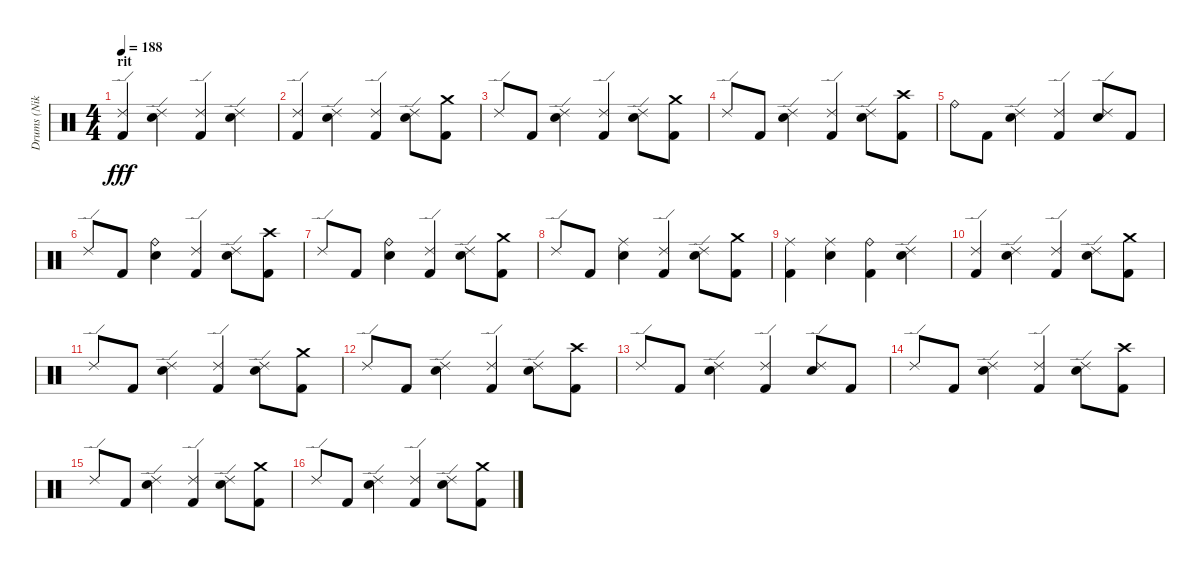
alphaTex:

\track ("Drums (Niko)" "Drums (Nik") {instrument percussion}
\staff {score}
\articulation defaults
\ts (4 4)
\section ("" "rit")
\tempo 188
\clef neutral
\ks c
("Ride (edge) 2" "Kick (hit) 2").4{dy fff} ("Ride (edge) 2" "Electric Snare (hit)").4 ("Ride (edge) 2" "Kick (hit) 2").4 ("Ride (edge) 2" "Electric Snare (hit)").4 |
("Ride (edge) 2" "Kick (hit) 2").4 ("Ride (edge) 2" "Electric Snare (hit)").4 ("Ride (edge) 2" "Kick (hit) 2").4 ("Ride (edge) 2" "Electric Snare (hit)").8 ("Crash medium (hit)" "Kick (hit) 2").8 |
"Ride (edge) 2".8 "Kick (hit) 2".8 ("Ride (edge) 2" "Electric Snare (hit)").4 ("Ride (edge) 2" "Kick (hit) 2").4 ("Ride (edge) 2" "Electric Snare (hit)").8 ("Crash medium (hit)" "Kick (hit) 2").8 |
"Ride (edge) 2".8 "Kick (hit) 2".8 ("Ride (edge) 2" "Electric Snare (hit)").4 ("Ride (edge) 2" "Kick (hit) 2").4 ("Ride (edge) 2" "Electric Snare (hit)").8 ("Crash high (hit)" "Kick (hit) 2").8 |
"Ride (bell)".8 "Kick (hit) 2".8 ("Ride (edge) 2" "Electric Snare (hit)").4 ("Ride (edge) 2" "Kick (hit) 2").4 ("Ride (edge) 2" "Electric Snare (hit)").8 "Kick (hit) 2".8 |
"Ride (edge) 2".8 "Kick (hit) 2".8 ("Ride (bell)" "Electric Snare (hit)").4 ("Ride (edge) 2" "Kick (hit) 2").4 ("Ride (edge) 2" "Electric Snare (hit)").8 ("Crash high (hit)" "Kick (hit) 2").8 |
"Ride (edge) 2".8 "Kick (hit) 2".8 ("Ride (bell)" "Electric Snare (hit)").4 ("Ride (edge) 2" "Kick (hit) 2").4 ("Ride (edge) 2" "Electric Snare (hit)").8 ("Crash medium (hit)" "Kick (hit) 2").8 |
"Ride (edge) 2".8 "Kick (hit) 2".8 ("Ride (middle)" "Electric Snare (hit)").4 ("Ride (edge) 2" "Kick (hit) 2").4 ("Ride (edge) 2" "Electric Snare (hit)").8 ("Crash medium (hit)" "Kick (hit) 2").8 |
("Ride (middle)" "Kick (hit) 2").4 ("Ride (middle)" "Electric Snare (hit)").4 ("Ride (bell)" "Kick (hit) 2").4 ("Ride (edge) 2" "Electric Snare (hit)").4 |
("Ride (edge) 2" "Kick (hit) 2").4 ("Ride (edge) 2" "Electric Snare (hit)").4 ("Ride (edge) 2" "Kick (hit) 2").4 ("Ride (edge) 2" "Electric Snare (hit)").8 ("Crash medium (hit)" "Kick (hit) 2").8 |
"Ride (edge) 2".8 "Kick (hit) 2".8 ("Ride (edge) 2" "Electric Snare (hit)").4 ("Ride (edge) 2" "Kick (hit) 2").4 ("Ride (edge) 2" "Electric Snare (hit)").8 ("Crash medium (hit)" "Kick (hit) 2").8 |
"Ride (edge) 2".8 "Kick (hit) 2".8 ("Ride (edge) 2" "Electric Snare (hit)").4 ("Ride (edge) 2" "Kick (hit) 2").4 ("Ride (edge) 2" "Electric Snare (hit)").8 ("Crash high (hit)" "Kick (hit) 2").8 |
"Ride (edge) 2".8 "Kick (hit) 2".8 ("Ride (edge) 2" "Electric Snare (hit)").4 ("Ride (edge) 2" "Kick (hit) 2").4 ("Ride (edge) 2" "Electric Snare (hit)").8 "Kick (hit) 2".8 |
"Ride (edge) 2".8 "Kick (hit) 2".8 ("Ride (edge) 2" "Electric Snare (hit)").4 ("Ride (edge) 2" "Kick (hit) 2").4 ("Ride (edge) 2" "Electric Snare (hit)").8 ("Crash high (hit)" "Kick (hit) 2").8 |
"Ride (edge) 2".8 "Kick (hit) 2".8 ("Ride (edge) 2" "Electric Snare (hit)").4 ("Ride (edge) 2" "Kick (hit) 2").4 ("Ride (edge) 2" "Electric Snare (hit)").8 ("Crash medium (hit)" "Kick (hit) 2").8 |
"Ride (edge) 2".8 "Kick (hit) 2".8 ("Ride (edge) 2" "Electric Snare (hit)").4 ("Ride (edge) 2" "Kick (hit) 2").4 ("Ride (edge) 2" "Electric Snare (hit)").8 ("Crash medium (hit)" "Kick (hit) 2").8
